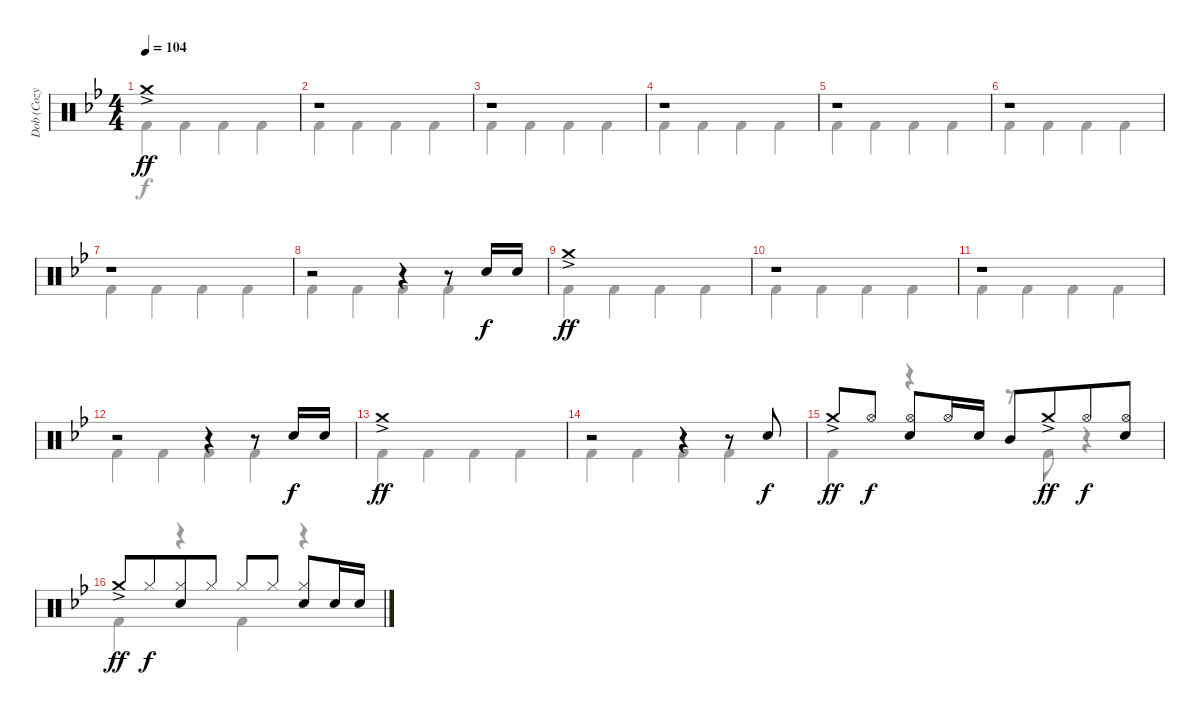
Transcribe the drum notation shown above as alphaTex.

\track ("Dob (Cozy Powell)" "Dob (Cozy ") {instrument percussion}
\staff {score}
\articulation defaults
\voice
\ts (4 4)
\tempo 104
\clef neutral
\ks bb "Crash medium (hit)"{ac}.1{dy ff}
|
r.1 |
r.1 |
r.1 |
r.1 |
r.1 |
r.1 |
r.2 r.4 r.8 "Electric Snare (hit)".16{dy f} "Electric Snare (hit)".16 |
"Crash medium (hit)"{ac}.1{dy ff} |
r.1 |
r.1 |
r.2 r.4 r.8 "Electric Snare (hit)".16{dy f} "Electric Snare (hit)".16 |
"Crash medium (hit)"{ac}.1{dy ff} |
r.2 r.4 r.8 "Electric Snare (hit)".8{dy f} |
"Crash medium (hit)"{ac}.8{dy ff} "Hi-Hat (open)".8{dy f} ("Hi-Hat (open)" "Electric Snare (hit)").8 "Hi-Hat (open)".16 "Electric Snare (hit)".16 "Mid Tom (hit)".8 "Crash medium (hit)"{ac}.8{dy ff beam merge} "Hi-Hat (open)".8{dy f} ("Hi-Hat (open)" "Electric Snare (hit)").8 |
"Crash medium (hit)"{ac}.8{dy ff} "Hi-Hat (closed)".8{dy f beam merge} ("Hi-Hat (closed)" "Electric Snare (hit)").8 "Hi-Hat (closed)".8 "Hi-Hat (closed)".8 "Hi-Hat (closed)".8 ("Hi-Hat (closed)" "Electric Snare (hit)").8 "Electric Snare (hit)".16 "Electric Snare (hit)".16
\voice
\clef neutral
\ottava regular
\simile none
\ks bb "Kick (hit) 2".4{dy f} "Kick (hit) 2".4 "Kick (hit) 2".4 "Kick (hit) 2".4
|
"Kick (hit) 2".4 "Kick (hit) 2".4 "Kick (hit) 2".4 "Kick (hit) 2".4 |
"Kick (hit) 2".4 "Kick (hit) 2".4 "Kick (hit) 2".4 "Kick (hit) 2".4 |
"Kick (hit) 2".4 "Kick (hit) 2".4 "Kick (hit) 2".4 "Kick (hit) 2".4 |
"Kick (hit) 2".4 "Kick (hit) 2".4 "Kick (hit) 2".4 "Kick (hit) 2".4 |
"Kick (hit) 2".4 "Kick (hit) 2".4 "Kick (hit) 2".4 "Kick (hit) 2".4 |
"Kick (hit) 2".4 "Kick (hit) 2".4 "Kick (hit) 2".4 "Kick (hit) 2".4 |
"Kick (hit) 2".4 "Kick (hit) 2".4 "Kick (hit) 2".4 "Kick (hit) 2".4 |
"Kick (hit) 2".4 "Kick (hit) 2".4 "Kick (hit) 2".4 "Kick (hit) 2".4 |
"Kick (hit) 2".4 "Kick (hit) 2".4 "Kick (hit) 2".4 "Kick (hit) 2".4 |
"Kick (hit) 2".4 "Kick (hit) 2".4 "Kick (hit) 2".4 "Kick (hit) 2".4 |
"Kick (hit) 2".4 "Kick (hit) 2".4 "Kick (hit) 2".4 "Kick (hit) 2".4 |
"Kick (hit) 2".4 "Kick (hit) 2".4 "Kick (hit) 2".4 "Kick (hit) 2".4 |
"Kick (hit) 2".4 "Kick (hit) 2".4 "Kick (hit) 2".4 "Kick (hit) 2".4 |
"Kick (hit) 2".4 r.4 r.8 "Kick (hit) 2".8 r.4 |
"Kick (hit) 2".4 r.4 "Kick (hit) 2".4 r.4
